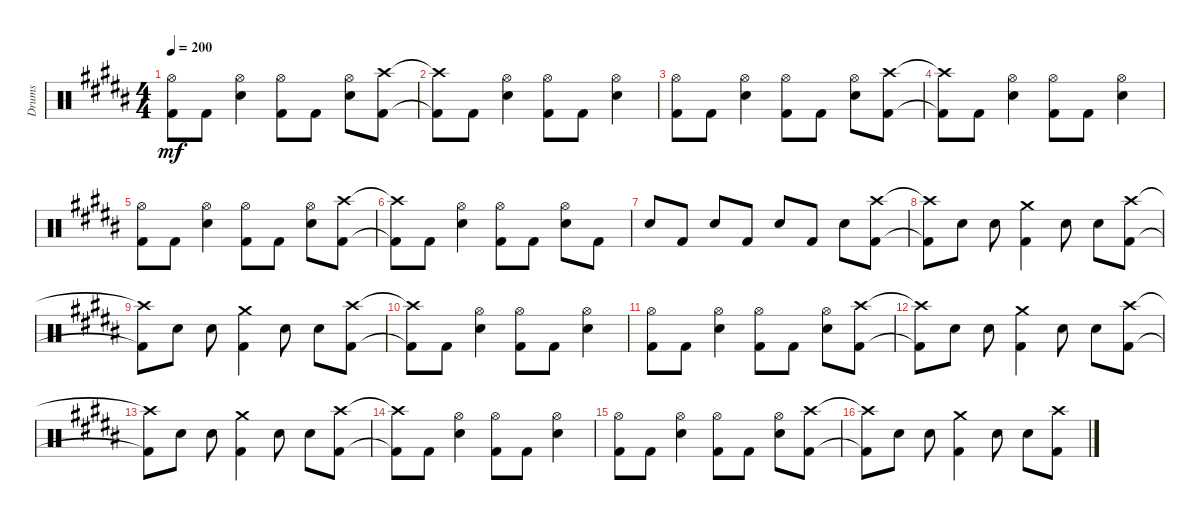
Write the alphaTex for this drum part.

\track ("Drums" "Drums") {instrument percussion}
\staff {score}
\articulation defaults
\ts (4 4)
\tempo 200
\clef neutral
\ks b
("Kick (hit) 2" "Hi-Hat (open)").8{dy mf} "Kick (hit) 2".8 ("Snare (hit) 2" "Hi-Hat (open)").4 ("Kick (hit) 2" "Hi-Hat (open)").8 "Kick (hit) 2".8 ("Snare (hit) 2" "Hi-Hat (open)").8 ("Kick (hit) 2" "Crash high (hit)").8 |
("Kick (hit) 2"{t} "Crash high (hit)"{t}).8 "Kick (hit) 2".8 ("Snare (hit) 2" "Hi-Hat (open)").4 ("Kick (hit) 2" "Hi-Hat (open)").8 "Kick (hit) 2".8 ("Snare (hit) 2" "Hi-Hat (open)").4 |
("Kick (hit) 2" "Hi-Hat (open)").8 "Kick (hit) 2".8 ("Snare (hit) 2" "Hi-Hat (open)").4 ("Kick (hit) 2" "Hi-Hat (open)").8 "Kick (hit) 2".8 ("Snare (hit) 2" "Hi-Hat (open)").8 ("Kick (hit) 2" "Crash high (hit)").8 |
("Kick (hit) 2"{t} "Crash high (hit)"{t}).8 "Kick (hit) 2".8 ("Snare (hit) 2" "Hi-Hat (open)").4 ("Kick (hit) 2" "Hi-Hat (open)").8 "Kick (hit) 2".8 ("Snare (hit) 2" "Hi-Hat (open)").4 |
("Kick (hit) 2" "Hi-Hat (open)").8 "Kick (hit) 2".8 ("Snare (hit) 2" "Hi-Hat (open)").4 ("Kick (hit) 2" "Hi-Hat (open)").8 "Kick (hit) 2".8 ("Snare (hit) 2" "Hi-Hat (open)").8 ("Kick (hit) 2" "Crash high (hit)").8 |
("Kick (hit) 2"{t} "Crash high (hit)"{t}).8 "Kick (hit) 2".8 ("Snare (hit) 2" "Hi-Hat (open)").4 ("Kick (hit) 2" "Hi-Hat (open)").8 "Kick (hit) 2".8 ("Snare (hit) 2" "Hi-Hat (open)").8 "Kick (hit) 2".8 |
"Snare (hit) 2".8 "Kick (hit) 2".8 "Snare (hit) 2".8 "Kick (hit) 2".8 "Snare (hit) 2".8 "Kick (hit) 2".8 "Snare (hit) 2".8 ("Kick (hit) 2" "Crash high (hit)").8 |
("Kick (hit) 2"{t} "Crash high (hit)"{t}).8 "Snare (hit) 2".8 "Snare (hit) 2".8 ("Kick (hit) 2" "Crash medium (hit)").4 "Snare (hit) 2".8 "Snare (hit) 2".8 ("Kick (hit) 2" "Crash high (hit)").8 |
("Kick (hit) 2"{t} "Crash high (hit)"{t}).8 "Snare (hit) 2".8 "Snare (hit) 2".8 ("Kick (hit) 2" "Crash medium (hit)").4 "Snare (hit) 2".8 "Snare (hit) 2".8 ("Kick (hit) 2" "Crash high (hit)").8 |
("Kick (hit) 2"{t} "Crash high (hit)"{t}).8 "Kick (hit) 2".8 ("Snare (hit) 2" "Hi-Hat (open)").4 ("Kick (hit) 2" "Hi-Hat (open)").8 "Kick (hit) 2".8 ("Snare (hit) 2" "Hi-Hat (open)").4 |
("Kick (hit) 2" "Hi-Hat (open)").8 "Kick (hit) 2".8 ("Snare (hit) 2" "Hi-Hat (open)").4 ("Kick (hit) 2" "Hi-Hat (open)").8 "Kick (hit) 2".8 ("Snare (hit) 2" "Hi-Hat (open)").8 ("Kick (hit) 2" "Crash high (hit)").8 |
("Kick (hit) 2"{t} "Crash high (hit)"{t}).8 "Snare (hit) 2".8 "Snare (hit) 2".8 ("Kick (hit) 2" "Crash medium (hit)").4 "Snare (hit) 2".8 "Snare (hit) 2".8 ("Kick (hit) 2" "Crash high (hit)").8 |
("Kick (hit) 2"{t} "Crash high (hit)"{t}).8 "Snare (hit) 2".8 "Snare (hit) 2".8 ("Kick (hit) 2" "Crash medium (hit)").4 "Snare (hit) 2".8 "Snare (hit) 2".8 ("Kick (hit) 2" "Crash high (hit)").8 |
("Kick (hit) 2"{t} "Crash high (hit)"{t}).8 "Kick (hit) 2".8 ("Snare (hit) 2" "Hi-Hat (open)").4 ("Kick (hit) 2" "Hi-Hat (open)").8 "Kick (hit) 2".8 ("Snare (hit) 2" "Hi-Hat (open)").4 |
("Kick (hit) 2" "Hi-Hat (open)").8 "Kick (hit) 2".8 ("Snare (hit) 2" "Hi-Hat (open)").4 ("Kick (hit) 2" "Hi-Hat (open)").8 "Kick (hit) 2".8 ("Snare (hit) 2" "Hi-Hat (open)").8 ("Kick (hit) 2" "Crash high (hit)").8 |
("Kick (hit) 2"{t} "Crash high (hit)"{t}).8 "Snare (hit) 2".8 "Snare (hit) 2".8 ("Kick (hit) 2" "Crash medium (hit)").4 "Snare (hit) 2".8 "Snare (hit) 2".8 ("Kick (hit) 2" "Crash high (hit)").8
